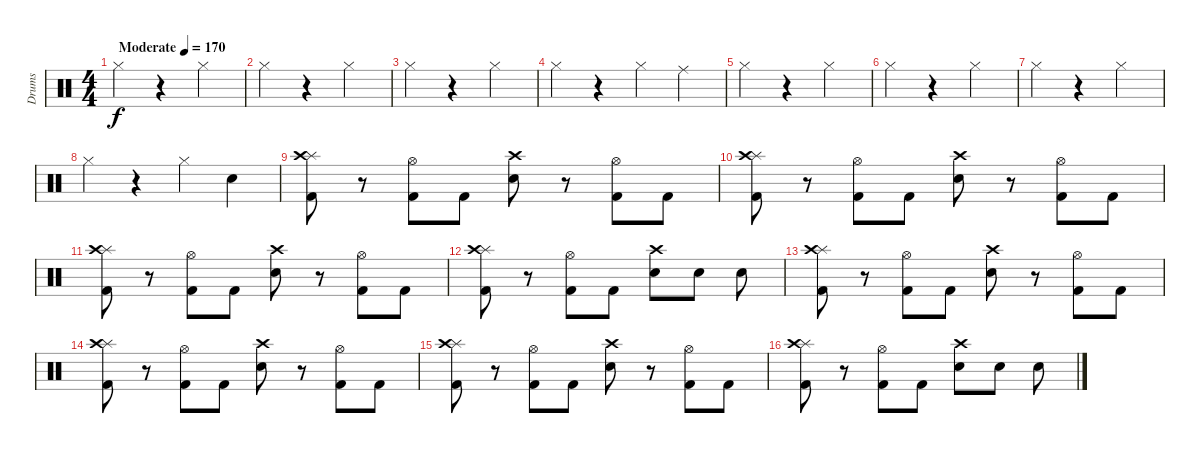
\track ("Drums" "Drums") {instrument percussion}
\staff {score}
\articulation defaults
\ts (4 4)
\tempo (170 "Moderate")
\clef neutral
\ks c "Hi-Hat (closed)".4{dy f}
r.4 "Hi-Hat (closed)".4 |
"Hi-Hat (closed)".4 r.4 "Hi-Hat (closed)".4 |
"Hi-Hat (closed)".4 r.4 "Hi-Hat (closed)".4 |
"Hi-Hat (closed)".4 r.4 "Hi-Hat (closed)".4 "Ride (middle)".4 |
"Hi-Hat (closed)".4 r.4 "Hi-Hat (closed)".4 |
"Hi-Hat (closed)".4 r.4 "Hi-Hat (closed)".4 |
"Hi-Hat (closed)".4 r.4 "Hi-Hat (closed)".4 |
"Hi-Hat (closed)".4 r.4 "Hi-Hat (closed)".4 "Snare (hit) 2".4 |
("Splash (hit)" "Crash high (hit)" "Kick (hit) 2").8 r.8 ("Hi-Hat (open)" "Kick (hit) 2").8 "Kick (hit) 2".8 ("Crash high (hit)" "Snare (hit) 2").8 r.8 ("Hi-Hat (open)" "Kick (hit) 2").8 "Kick (hit) 2".8 |
("Splash (hit)" "Crash high (hit)" "Kick (hit) 2").8 r.8 ("Hi-Hat (open)" "Kick (hit) 2").8 "Kick (hit) 2".8 ("Crash high (hit)" "Snare (hit) 2").8 r.8 ("Hi-Hat (open)" "Kick (hit) 2").8 "Kick (hit) 2".8 |
("Splash (hit)" "Crash high (hit)" "Kick (hit) 2").8 r.8 ("Hi-Hat (open)" "Kick (hit) 2").8 "Kick (hit) 2".8 ("Crash high (hit)" "Snare (hit) 2").8 r.8 ("Hi-Hat (open)" "Kick (hit) 2").8 "Kick (hit) 2".8 |
("Splash (hit)" "Crash high (hit)" "Kick (hit) 2").8 r.8 ("Hi-Hat (open)" "Kick (hit) 2").8 "Kick (hit) 2".8 ("Crash high (hit)" "Snare (hit) 2").8 "Snare (hit) 2".8 "Snare (hit) 2".8 |
("Splash (hit)" "Crash high (hit)" "Kick (hit) 2").8 r.8 ("Hi-Hat (open)" "Kick (hit) 2").8 "Kick (hit) 2".8 ("Crash high (hit)" "Snare (hit) 2").8 r.8 ("Hi-Hat (open)" "Kick (hit) 2").8 "Kick (hit) 2".8 |
("Splash (hit)" "Crash high (hit)" "Kick (hit) 2").8 r.8 ("Hi-Hat (open)" "Kick (hit) 2").8 "Kick (hit) 2".8 ("Crash high (hit)" "Snare (hit) 2").8 r.8 ("Hi-Hat (open)" "Kick (hit) 2").8 "Kick (hit) 2".8 |
("Splash (hit)" "Crash high (hit)" "Kick (hit) 2").8 r.8 ("Hi-Hat (open)" "Kick (hit) 2").8 "Kick (hit) 2".8 ("Crash high (hit)" "Snare (hit) 2").8 r.8 ("Hi-Hat (open)" "Kick (hit) 2").8 "Kick (hit) 2".8 |
("Splash (hit)" "Crash high (hit)" "Kick (hit) 2").8 r.8 ("Hi-Hat (open)" "Kick (hit) 2").8 "Kick (hit) 2".8 ("Crash high (hit)" "Snare (hit) 2").8 "Snare (hit) 2".8 "Snare (hit) 2".8
